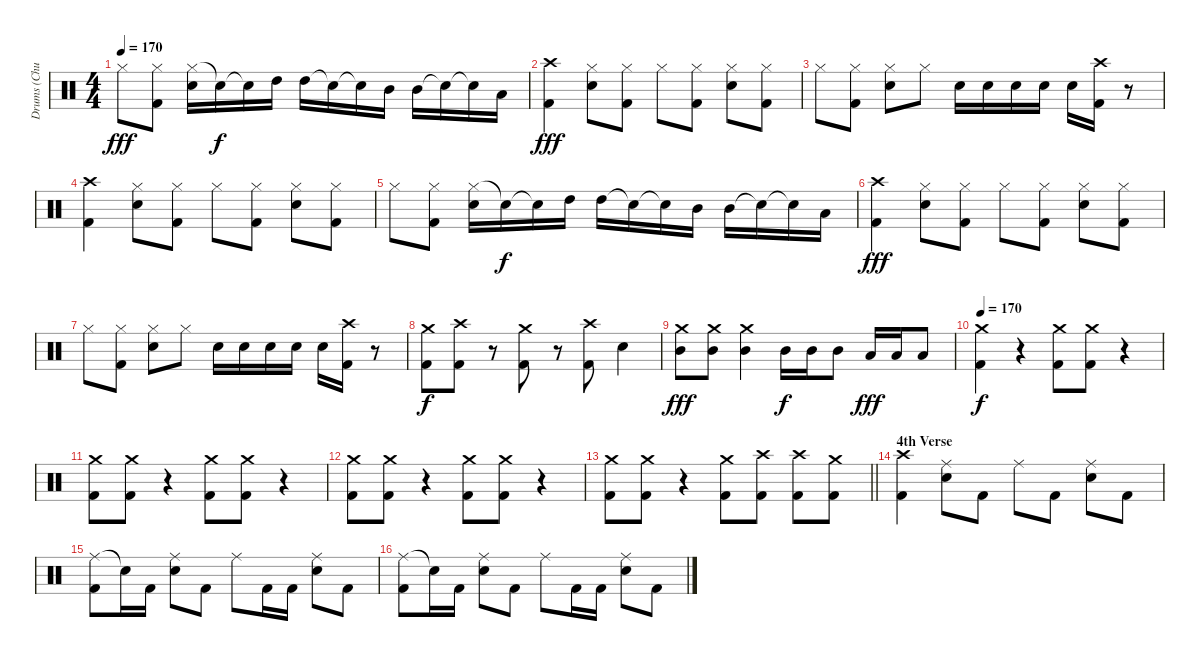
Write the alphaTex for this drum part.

\track ("Drums (Chuck Behler)" "Drums (Chu") {instrument percussion}
\staff {score}
\articulation defaults
\ts (4 4)
\tempo 170
\clef neutral
\ks c "Hi-Hat (closed)".8{dy fff}
("Hi-Hat (closed)" "Kick (hit) 2").8 ("Hi-Hat (closed)" "Snare (hit) 2").16 "Snare (hit)"{t}.16{dy f} "Snare (hit)"{t}.16 "High Tom (hit)".16 "High Tom (hit)".16 "Snare (hit)"{t}.16 "Snare (hit)"{t}.16 "Mid Tom (hit)".16 "Mid Tom (hit)".16 "Snare (hit)"{t}.16 "Snare (hit)"{t}.16 "Low Tom (hit)".16 |
("Crash high (hit)" "Kick (hit) 2").4{dy fff} ("Hi-Hat (closed)" "Snare (hit) 2").8 ("Hi-Hat (closed)" "Kick (hit) 2").8 "Hi-Hat (closed)".8 ("Hi-Hat (closed)" "Kick (hit) 2").8 ("Hi-Hat (closed)" "Snare (hit) 2").8 ("Hi-Hat (closed)" "Kick (hit) 2").8 |
"Hi-Hat (closed)".8 ("Hi-Hat (closed)" "Kick (hit) 2").8 ("Hi-Hat (closed)" "Snare (hit) 2").8 "Hi-Hat (closed)".8 "Snare (hit) 2".16 "Snare (hit) 2".16 "Snare (hit) 2".16 "Snare (hit) 2".16 "Snare (hit) 2".16 ("Crash high (hit)" "Kick (hit) 2").16 r.8 |
("Crash high (hit)" "Kick (hit) 2").4 ("Hi-Hat (closed)" "Snare (hit) 2").8 ("Hi-Hat (closed)" "Kick (hit) 2").8 "Hi-Hat (closed)".8 ("Hi-Hat (closed)" "Kick (hit) 2").8 ("Hi-Hat (closed)" "Snare (hit) 2").8 ("Hi-Hat (closed)" "Kick (hit) 2").8 |
"Hi-Hat (closed)".8 ("Hi-Hat (closed)" "Kick (hit) 2").8 ("Hi-Hat (closed)" "Snare (hit) 2").16 "Snare (hit)"{t}.16{dy f} "Snare (hit)"{t}.16 "High Tom (hit)".16 "High Tom (hit)".16 "Snare (hit)"{t}.16 "Snare (hit)"{t}.16 "Mid Tom (hit)".16 "Mid Tom (hit)".16 "Snare (hit)"{t}.16 "Snare (hit)"{t}.16 "Low Tom (hit)".16 |
("Crash high (hit)" "Kick (hit) 2").4{dy fff} ("Hi-Hat (closed)" "Snare (hit) 2").8 ("Hi-Hat (closed)" "Kick (hit) 2").8 "Hi-Hat (closed)".8 ("Hi-Hat (closed)" "Kick (hit) 2").8 ("Hi-Hat (closed)" "Snare (hit) 2").8 ("Hi-Hat (closed)" "Kick (hit) 2").8 |
"Hi-Hat (closed)".8 ("Hi-Hat (closed)" "Kick (hit) 2").8 ("Hi-Hat (closed)" "Snare (hit) 2").8 "Hi-Hat (closed)".8 "Snare (hit) 2".16 "Snare (hit) 2".16 "Snare (hit) 2".16 "Snare (hit) 2".16 "Snare (hit) 2".16 ("Crash high (hit)" "Kick (hit) 2").16 r.8 |
("Crash medium (hit)" "Kick (hit) 2").8{dy f} ("Crash high (hit)" "Kick (hit) 2").8 r.8 ("Crash medium (hit)" "Kick (hit) 2").8 r.8 ("Crash high (hit)" "Kick (hit) 2").8 "Snare (hit) 2".4 |
("Crash medium (hit)" "Mid Tom (hit)").8{dy fff} ("Crash medium (hit)" "Mid Tom (hit)").8 ("Crash medium (hit)" "Mid Tom (hit)").4 "Mid Tom (hit)".16{dy f} "Mid Tom (hit)".16 "Mid Tom (hit)".8 "Low Tom (hit)".16{dy fff} "Low Tom (hit)".16 "Low Tom (hit)".8 |
\tempo 170
("Crash medium (hit)" "Kick (hit) 2").4{dy f} r.4 ("Crash medium (hit)" "Kick (hit) 2").8 ("Crash medium (hit)" "Kick (hit) 2").8 r.4 |
("Crash medium (hit)" "Kick (hit) 2").8 ("Crash medium (hit)" "Kick (hit) 2").8 r.4 ("Crash medium (hit)" "Kick (hit) 2").8 ("Crash medium (hit)" "Kick (hit) 2").8 r.4 |
("Crash medium (hit)" "Kick (hit) 2").8 ("Crash medium (hit)" "Kick (hit) 2").8 r.4 ("Crash medium (hit)" "Kick (hit) 2").8 ("Crash medium (hit)" "Kick (hit) 2").8 r.4 |
\barLineRight lightlight
("Crash medium (hit)" "Kick (hit) 2").8 ("Crash medium (hit)" "Kick (hit) 2").8 r.4 ("Crash medium (hit)" "Kick (hit) 2").8 ("Crash high (hit)" "Kick (hit) 2").8 ("Crash high (hit)" "Kick (hit) 2").8 ("Crash medium (hit)" "Kick (hit) 2").8 |
\section ("" "4th Verse")
("Crash high (hit)" "Kick (hit) 2").4 ("Ride (middle)" "Snare (hit) 2").8 "Kick (hit) 2".8 "Ride (middle)".8 "Kick (hit) 2".8 ("Ride (middle)" "Snare (hit) 2").8 "Kick (hit) 2".8 |
("Ride (middle)" "Kick (hit) 2").8 "Snare (hit)"{t}.16 "Kick (hit) 2".16 ("Ride (middle)" "Snare (hit) 2").8 "Kick (hit) 2".8 "Ride (middle)".8 "Kick (hit) 2".16 "Kick (hit) 2".16 ("Ride (middle)" "Snare (hit) 2").8 "Kick (hit) 2".8 |
("Ride (middle)" "Kick (hit) 2").8 "Snare (hit)"{t}.16 "Kick (hit) 2".16 ("Ride (middle)" "Snare (hit) 2").8 "Kick (hit) 2".8 "Ride (middle)".8 "Kick (hit) 2".16 "Kick (hit) 2".16 ("Ride (middle)" "Snare (hit) 2").8 "Kick (hit) 2".8
